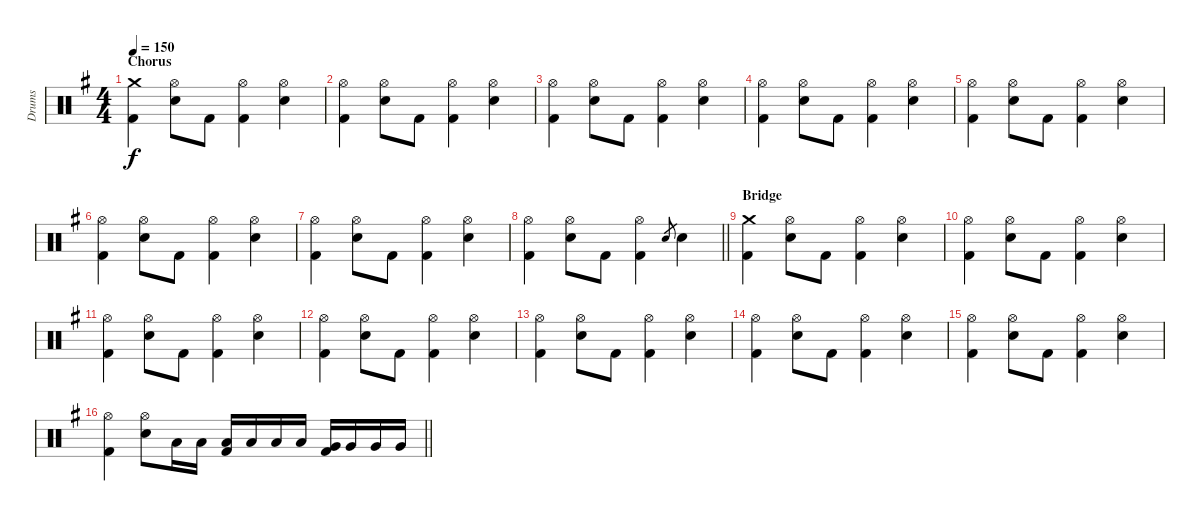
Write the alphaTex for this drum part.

\track ("Drums" "Drums") {instrument percussion}
\staff {score}
\articulation defaults
\ts (4 4)
\section ("" "Chorus")
\tempo 150
\clef neutral
\ks g
("Crash medium (hit)" "Kick (hit) 2").4{dy f} ("Hi-Hat (open)" "Snare (hit) 2").8 "Kick (hit) 2".8 ("Hi-Hat (open)" "Kick (hit) 2").4 ("Hi-Hat (open)" "Snare (hit) 2").4 |
("Hi-Hat (open)" "Kick (hit) 2").4 ("Hi-Hat (open)" "Snare (hit) 2").8 "Kick (hit) 2".8 ("Hi-Hat (open)" "Kick (hit) 2").4 ("Hi-Hat (open)" "Snare (hit) 2").4 |
("Hi-Hat (open)" "Kick (hit) 2").4 ("Hi-Hat (open)" "Snare (hit) 2").8 "Kick (hit) 2".8 ("Hi-Hat (open)" "Kick (hit) 2").4 ("Hi-Hat (open)" "Snare (hit) 2").4 |
("Hi-Hat (open)" "Kick (hit) 2").4 ("Hi-Hat (open)" "Snare (hit) 2").8 "Kick (hit) 2".8 ("Hi-Hat (open)" "Kick (hit) 2").4 ("Hi-Hat (open)" "Snare (hit) 2").4 |
("Hi-Hat (open)" "Kick (hit) 2").4 ("Hi-Hat (open)" "Snare (hit) 2").8 "Kick (hit) 2".8 ("Hi-Hat (open)" "Kick (hit) 2").4 ("Hi-Hat (open)" "Snare (hit) 2").4 |
("Hi-Hat (open)" "Kick (hit) 2").4 ("Hi-Hat (open)" "Snare (hit) 2").8 "Kick (hit) 2".8 ("Hi-Hat (open)" "Kick (hit) 2").4 ("Hi-Hat (open)" "Snare (hit) 2").4 |
("Hi-Hat (open)" "Kick (hit) 2").4 ("Hi-Hat (open)" "Snare (hit) 2").8 "Kick (hit) 2".8 ("Hi-Hat (open)" "Kick (hit) 2").4 ("Hi-Hat (open)" "Snare (hit) 2").4 |
\barLineRight lightlight
("Hi-Hat (open)" "Kick (hit) 2").4 ("Hi-Hat (open)" "Snare (hit) 2").8 "Kick (hit) 2".8 ("Hi-Hat (open)" "Kick (hit) 2").4 "Snare (hit) 2".8{gr} "Snare (hit) 2".4 |
\section ("" "Bridge")
("Crash medium (hit)" "Kick (hit) 2").4 ("Hi-Hat (open)" "Snare (hit) 2").8 "Kick (hit) 2".8 ("Hi-Hat (open)" "Kick (hit) 2").4 ("Hi-Hat (open)" "Snare (hit) 2").4 |
("Hi-Hat (open)" "Kick (hit) 2").4 ("Hi-Hat (open)" "Snare (hit) 2").8 "Kick (hit) 2".8 ("Hi-Hat (open)" "Kick (hit) 2").4 ("Hi-Hat (open)" "Snare (hit) 2").4 |
("Hi-Hat (open)" "Kick (hit) 2").4 ("Hi-Hat (open)" "Snare (hit) 2").8 "Kick (hit) 2".8 ("Hi-Hat (open)" "Kick (hit) 2").4 ("Hi-Hat (open)" "Snare (hit) 2").4 |
("Hi-Hat (open)" "Kick (hit) 2").4 ("Hi-Hat (open)" "Snare (hit) 2").8 "Kick (hit) 2".8 ("Hi-Hat (open)" "Kick (hit) 2").4 ("Hi-Hat (open)" "Snare (hit) 2").4 |
("Hi-Hat (open)" "Kick (hit) 2").4 ("Hi-Hat (open)" "Snare (hit) 2").8 "Kick (hit) 2".8 ("Hi-Hat (open)" "Kick (hit) 2").4 ("Hi-Hat (open)" "Snare (hit) 2").4 |
("Hi-Hat (open)" "Kick (hit) 2").4 ("Hi-Hat (open)" "Snare (hit) 2").8 "Kick (hit) 2".8 ("Hi-Hat (open)" "Kick (hit) 2").4 ("Hi-Hat (open)" "Snare (hit) 2").4 |
("Hi-Hat (open)" "Kick (hit) 2").4 ("Hi-Hat (open)" "Snare (hit) 2").8 "Kick (hit) 2".8 ("Hi-Hat (open)" "Kick (hit) 2").4 ("Hi-Hat (open)" "Snare (hit) 2").4 |
\barLineRight lightlight
("Hi-Hat (open)" "Kick (hit) 2").4 ("Hi-Hat (open)" "Snare (hit) 2").8 "Low Tom (hit)".16 "Low Tom (hit)".16 ("Low Tom (hit)" "Kick (hit) 2").16 "Low Tom (hit)".16 "Low Tom (hit)".16 "Low Tom (hit)".16 ("Very Low Tom (hit)" "Kick (hit) 2").16 "Very Low Tom (hit)".16 "Very Low Tom (hit)".16 "Very Low Tom (hit)".16
